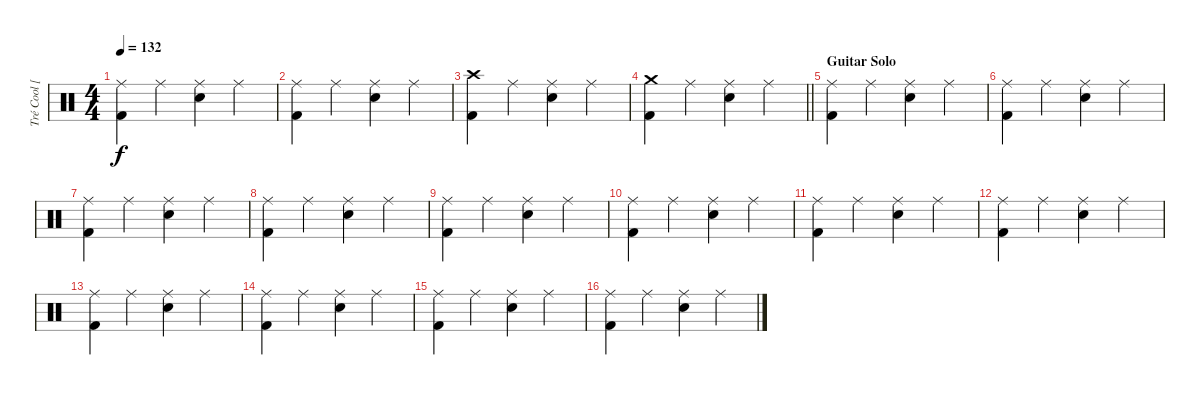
\track ("Tré Cool [Drums]" "Tré Cool [") {instrument percussion}
\staff {score}
\articulation defaults
\ts (4 4)
\tempo 132
\clef neutral
\ks c
("Ride (middle)" "Kick (hit) 2").4{dy f} "Ride (middle)".4 ("Ride (middle)" "Electric Snare (hit)").4 "Ride (middle)".4 |
("Ride (middle)" "Kick (hit) 2").4 "Ride (middle)".4 ("Ride (middle)" "Electric Snare (hit)").4 "Ride (middle)".4 |
("Crash high (hit)" "Kick (hit) 2").4 "Ride (middle)".4 ("Ride (middle)" "Electric Snare (hit)").4 "Ride (middle)".4 |
\barLineRight lightlight
("Crash medium (hit)" "Kick (hit) 2").4 "Ride (middle)".4 ("Ride (middle)" "Electric Snare (hit)").4 "Ride (middle)".4 |
\section ("" "Guitar Solo")
("Ride (middle)" "Kick (hit) 2").4 "Ride (middle)".4 ("Ride (middle)" "Electric Snare (hit)").4 "Ride (middle)".4 |
("Ride (middle)" "Kick (hit) 2").4 "Ride (middle)".4 ("Ride (middle)" "Electric Snare (hit)").4 "Ride (middle)".4 |
("Ride (middle)" "Kick (hit) 2").4 "Ride (middle)".4 ("Ride (middle)" "Electric Snare (hit)").4 "Ride (middle)".4 |
("Ride (middle)" "Kick (hit) 2").4 "Ride (middle)".4 ("Ride (middle)" "Electric Snare (hit)").4 "Ride (middle)".4 |
("Ride (middle)" "Kick (hit) 2").4 "Ride (middle)".4 ("Ride (middle)" "Electric Snare (hit)").4 "Ride (middle)".4 |
("Ride (middle)" "Kick (hit) 2").4 "Ride (middle)".4 ("Ride (middle)" "Electric Snare (hit)").4 "Ride (middle)".4 |
("Ride (middle)" "Kick (hit) 2").4 "Ride (middle)".4 ("Ride (middle)" "Electric Snare (hit)").4 "Ride (middle)".4 |
("Ride (middle)" "Kick (hit) 2").4 "Ride (middle)".4 ("Ride (middle)" "Electric Snare (hit)").4 "Ride (middle)".4 |
("Ride (middle)" "Kick (hit) 2").4 "Ride (middle)".4 ("Ride (middle)" "Electric Snare (hit)").4 "Ride (middle)".4 |
("Ride (middle)" "Kick (hit) 2").4 "Ride (middle)".4 ("Ride (middle)" "Electric Snare (hit)").4 "Ride (middle)".4 |
("Ride (middle)" "Kick (hit) 2").4 "Ride (middle)".4 ("Ride (middle)" "Electric Snare (hit)").4 "Ride (middle)".4 |
("Ride (middle)" "Kick (hit) 2").4 "Ride (middle)".4 ("Ride (middle)" "Electric Snare (hit)").4 "Ride (middle)".4
